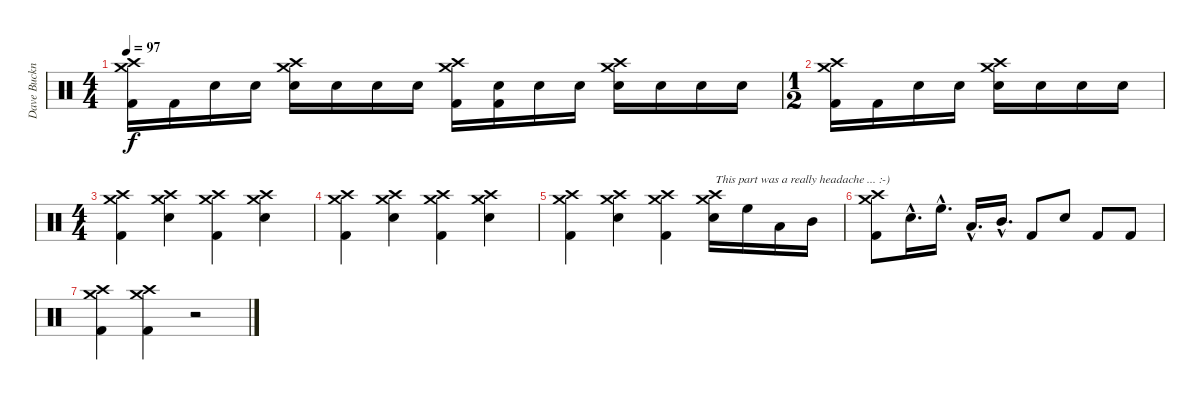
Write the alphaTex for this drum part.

\track ("Dave Buckner" "Dave Buckn") {instrument percussion}
\staff {score}
\articulation defaults
\ts (4 4)
\tempo 97
\clef neutral
\ks c
("Crash medium (hit)" "Crash high (hit)" "Kick (hit) 2").16{dy f} "Kick (hit) 2".16 "Snare (hit)".16 "Snare (hit)".16 ("Crash medium (hit)" "Crash high (hit)" "Snare (hit) 2").16 "Snare (hit)".16 "Snare (hit)".16 "Snare (hit)".16 ("Crash medium (hit)" "Crash high (hit)" "Kick (hit) 2").16 ("Snare (hit)" "Kick (hit) 2").16 "Snare (hit)".16 "Snare (hit)".16 ("Crash medium (hit)" "Crash high (hit)" "Snare (hit) 2").16 "Snare (hit)".16 "Snare (hit)".16 "Snare (hit)".16 |
\ts (1 2)
("Crash medium (hit)" "Crash high (hit)" "Kick (hit) 2").16 "Kick (hit) 2".16 "Snare (hit)".16 "Snare (hit)".16 ("Crash medium (hit)" "Crash high (hit)" "Snare (hit) 2").16 "Snare (hit)".16 "Snare (hit)".16 "Snare (hit)".16 |
\ts (4 4)
("Crash medium (hit)" "Crash high (hit)" "Kick (hit) 2").4 ("Crash medium (hit)" "Crash high (hit)" "Snare (hit) 2").4 ("Crash medium (hit)" "Crash high (hit)" "Kick (hit) 2").4 ("Crash high (hit)" "Crash medium (hit)" "Snare (hit) 2").4 |
("Crash medium (hit)" "Crash high (hit)" "Kick (hit) 2").4 ("Crash medium (hit)" "Crash high (hit)" "Snare (hit) 2").4 ("Crash medium (hit)" "Crash high (hit)" "Kick (hit) 2").4 ("Crash high (hit)" "Crash medium (hit)" "Snare (hit) 2").4 |
("Crash medium (hit)" "Crash high (hit)" "Kick (hit) 2").4 ("Crash medium (hit)" "Crash high (hit)" "Snare (hit) 2").4 ("Crash medium (hit)" "Crash high (hit)" "Kick (hit) 2").4 ("Crash high (hit)" "Crash medium (hit)" "Snare (hit) 2").16{txt "This part was a really headache ... :-)" volume 16} "High Floor Tom (hit)".16 "Low Tom (hit)".16 "Mid Tom (hit)".16 |
("Crash medium (hit)" "Crash high (hit)" "Kick (hit) 2").8 "Snare (hit) 2"{hac}.16{d} "High Floor Tom (hit)"{hac}.16{d} "Low Tom (hit)"{hac}.16{d} "Mid Tom (hit)"{hac}.16{d} "Kick (hit) 2".8 "Snare (hit) 2".8 "Kick (hit) 2".8 "Kick (hit) 2".8 |
("Crash high (hit)" "Crash medium (hit)" "Kick (hit) 2").4 ("Crash high (hit)" "Crash medium (hit)" "Kick (hit) 2").4 r.2
